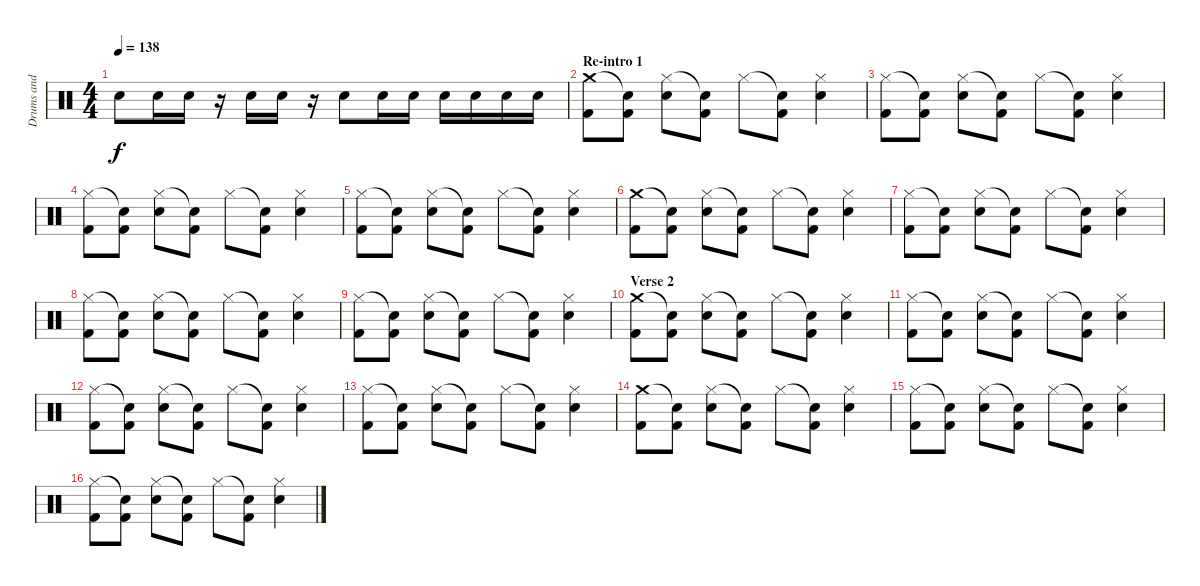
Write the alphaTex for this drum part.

\track ("Drums and Percussion" "Drums and ") {instrument percussion}
\staff {score}
\articulation defaults
\ts (4 4)
\tempo 138
\clef neutral
\ks c "Electric Snare (hit)".8{dy f} "Electric Snare (hit)".16 "Electric Snare (hit)".16
r.16 "Electric Snare (hit)".16 "Electric Snare (hit)".16 r.16 "Electric Snare (hit)".8 "Electric Snare (hit)".16 "Electric Snare (hit)".16 "Electric Snare (hit)".16 "Electric Snare (hit)".16 "Electric Snare (hit)".16 "Electric Snare (hit)".16 |
\section ("" "Re-intro 1")
("Crash medium (hit)" "Kick (hit) 2").8 ("Snare (hit)"{t} "Kick (hit) 2").8 ("Hi-Hat (closed)" "Electric Snare (hit)").8 ("Snare (hit)"{t} "Kick (hit) 2").8 "Hi-Hat (closed)".8 ("Snare (hit)"{t} "Kick (hit) 2").8 ("Hi-Hat (closed)" "Electric Snare (hit)").4 |
("Hi-Hat (closed)" "Kick (hit) 2").8 ("Snare (hit)"{t} "Kick (hit) 2").8 ("Hi-Hat (closed)" "Electric Snare (hit)").8 ("Snare (hit)"{t} "Kick (hit) 2").8 "Hi-Hat (closed)".8 ("Snare (hit)"{t} "Kick (hit) 2").8 ("Hi-Hat (closed)" "Electric Snare (hit)").4 |
("Hi-Hat (closed)" "Kick (hit) 2").8 ("Snare (hit)"{t} "Kick (hit) 2").8 ("Hi-Hat (closed)" "Electric Snare (hit)").8 ("Snare (hit)"{t} "Kick (hit) 2").8 "Hi-Hat (closed)".8 ("Snare (hit)"{t} "Kick (hit) 2").8 ("Hi-Hat (closed)" "Electric Snare (hit)").4 |
("Hi-Hat (closed)" "Kick (hit) 2").8 ("Snare (hit)"{t} "Kick (hit) 2").8 ("Hi-Hat (closed)" "Electric Snare (hit)").8 ("Snare (hit)"{t} "Kick (hit) 2").8 "Hi-Hat (closed)".8 ("Snare (hit)"{t} "Kick (hit) 2").8 ("Hi-Hat (closed)" "Electric Snare (hit)").4 |
("Crash medium (hit)" "Kick (hit) 2").8 ("Snare (hit)"{t} "Kick (hit) 2").8 ("Hi-Hat (closed)" "Electric Snare (hit)").8 ("Snare (hit)"{t} "Kick (hit) 2").8 "Hi-Hat (closed)".8 ("Snare (hit)"{t} "Kick (hit) 2").8 ("Hi-Hat (closed)" "Electric Snare (hit)").4 |
("Hi-Hat (closed)" "Kick (hit) 2").8 ("Snare (hit)"{t} "Kick (hit) 2").8 ("Hi-Hat (closed)" "Electric Snare (hit)").8 ("Snare (hit)"{t} "Kick (hit) 2").8 "Hi-Hat (closed)".8 ("Snare (hit)"{t} "Kick (hit) 2").8 ("Hi-Hat (closed)" "Electric Snare (hit)").4 |
("Hi-Hat (closed)" "Kick (hit) 2").8 ("Snare (hit)"{t} "Kick (hit) 2").8 ("Hi-Hat (closed)" "Electric Snare (hit)").8 ("Snare (hit)"{t} "Kick (hit) 2").8 "Hi-Hat (closed)".8 ("Snare (hit)"{t} "Kick (hit) 2").8 ("Hi-Hat (closed)" "Electric Snare (hit)").4 |
("Hi-Hat (closed)" "Kick (hit) 2").8 ("Snare (hit)"{t} "Kick (hit) 2").8 ("Hi-Hat (closed)" "Electric Snare (hit)").8 ("Snare (hit)"{t} "Kick (hit) 2").8 "Hi-Hat (closed)".8 ("Snare (hit)"{t} "Kick (hit) 2").8 ("Hi-Hat (closed)" "Electric Snare (hit)").4 |
\section ("" "Verse 2")
("Crash medium (hit)" "Kick (hit) 2").8 ("Snare (hit)"{t} "Kick (hit) 2").8 ("Hi-Hat (closed)" "Electric Snare (hit)").8 ("Snare (hit)"{t} "Kick (hit) 2").8 "Hi-Hat (closed)".8 ("Snare (hit)"{t} "Kick (hit) 2").8 ("Hi-Hat (closed)" "Electric Snare (hit)").4 |
("Hi-Hat (closed)" "Kick (hit) 2").8 ("Snare (hit)"{t} "Kick (hit) 2").8 ("Hi-Hat (closed)" "Electric Snare (hit)").8 ("Snare (hit)"{t} "Kick (hit) 2").8 "Hi-Hat (closed)".8 ("Snare (hit)"{t} "Kick (hit) 2").8 ("Hi-Hat (closed)" "Electric Snare (hit)").4 |
("Hi-Hat (closed)" "Kick (hit) 2").8 ("Snare (hit)"{t} "Kick (hit) 2").8 ("Hi-Hat (closed)" "Electric Snare (hit)").8 ("Snare (hit)"{t} "Kick (hit) 2").8 "Hi-Hat (closed)".8 ("Snare (hit)"{t} "Kick (hit) 2").8 ("Hi-Hat (closed)" "Electric Snare (hit)").4 |
("Hi-Hat (closed)" "Kick (hit) 2").8 ("Snare (hit)"{t} "Kick (hit) 2").8 ("Hi-Hat (closed)" "Electric Snare (hit)").8 ("Snare (hit)"{t} "Kick (hit) 2").8 "Hi-Hat (closed)".8 ("Snare (hit)"{t} "Kick (hit) 2").8 ("Hi-Hat (closed)" "Electric Snare (hit)").4 |
("Crash medium (hit)" "Kick (hit) 2").8 ("Snare (hit)"{t} "Kick (hit) 2").8 ("Hi-Hat (closed)" "Electric Snare (hit)").8 ("Snare (hit)"{t} "Kick (hit) 2").8 "Hi-Hat (closed)".8 ("Snare (hit)"{t} "Kick (hit) 2").8 ("Hi-Hat (closed)" "Electric Snare (hit)").4 |
("Hi-Hat (closed)" "Kick (hit) 2").8 ("Snare (hit)"{t} "Kick (hit) 2").8 ("Hi-Hat (closed)" "Electric Snare (hit)").8 ("Snare (hit)"{t} "Kick (hit) 2").8 "Hi-Hat (closed)".8 ("Snare (hit)"{t} "Kick (hit) 2").8 ("Hi-Hat (closed)" "Electric Snare (hit)").4 |
("Hi-Hat (closed)" "Kick (hit) 2").8 ("Snare (hit)"{t} "Kick (hit) 2").8 ("Hi-Hat (closed)" "Electric Snare (hit)").8 ("Snare (hit)"{t} "Kick (hit) 2").8 "Hi-Hat (closed)".8 ("Snare (hit)"{t} "Kick (hit) 2").8 ("Hi-Hat (closed)" "Electric Snare (hit)").4
